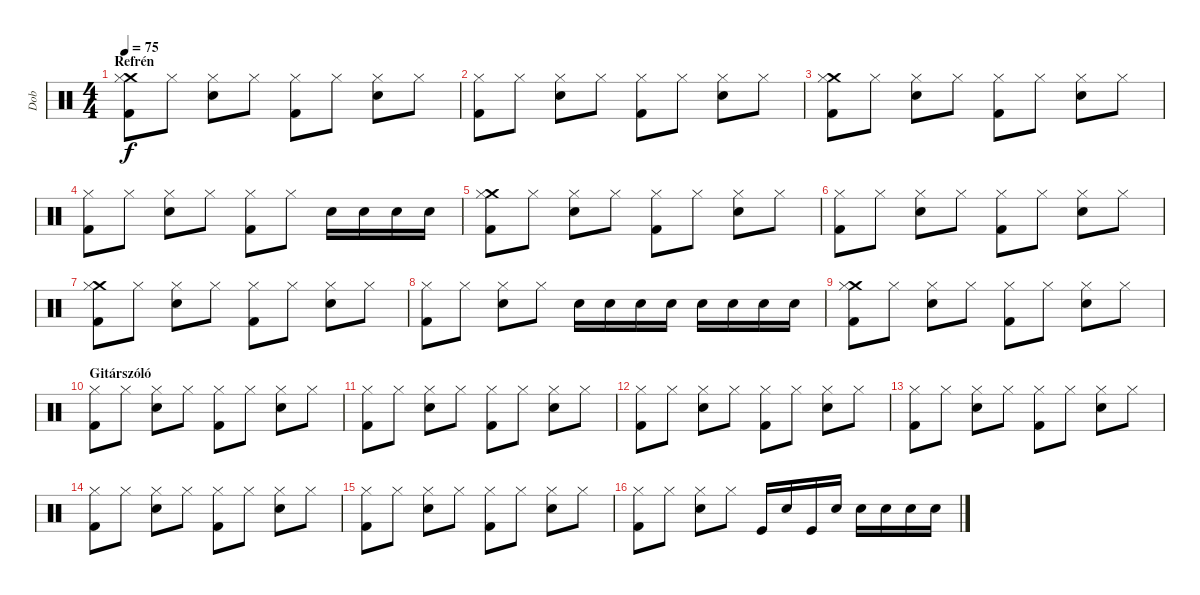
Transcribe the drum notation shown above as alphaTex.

\track ("Dob" "Dob") {instrument percussion}
\staff {score}
\articulation defaults
\ts (4 4)
\section ("" "Refrén")
\tempo 75
\clef neutral
\ks c
("Crash medium (hit)" "Kick (hit) 2" "Hi-Hat (closed)").8{dy f} "Hi-Hat (closed)".8 ("Snare (hit) 2" "Hi-Hat (closed)").8 "Hi-Hat (closed)".8 ("Kick (hit) 2" "Hi-Hat (closed)").8 "Hi-Hat (closed)".8 ("Snare (hit) 2" "Hi-Hat (closed)").8 "Hi-Hat (closed)".8 |
("Kick (hit) 2" "Hi-Hat (closed)").8 "Hi-Hat (closed)".8 ("Snare (hit) 2" "Hi-Hat (closed)").8 "Hi-Hat (closed)".8 ("Kick (hit) 2" "Hi-Hat (closed)").8 "Hi-Hat (closed)".8 ("Snare (hit) 2" "Hi-Hat (closed)").8 "Hi-Hat (closed)".8 |
("Crash medium (hit)" "Kick (hit) 2" "Hi-Hat (closed)").8 "Hi-Hat (closed)".8 ("Snare (hit) 2" "Hi-Hat (closed)").8 "Hi-Hat (closed)".8 ("Kick (hit) 2" "Hi-Hat (closed)").8 "Hi-Hat (closed)".8 ("Snare (hit) 2" "Hi-Hat (closed)").8 "Hi-Hat (closed)".8 |
("Kick (hit) 2" "Hi-Hat (closed)").8 "Hi-Hat (closed)".8 ("Snare (hit) 2" "Hi-Hat (closed)").8 "Hi-Hat (closed)".8 ("Kick (hit) 2" "Hi-Hat (closed)").8 "Hi-Hat (closed)".8 "Snare (hit) 2".16 "Snare (hit) 2".16 "Snare (hit) 2".16 "Snare (hit) 2".16 |
("Crash medium (hit)" "Kick (hit) 2" "Hi-Hat (closed)").8 "Hi-Hat (closed)".8 ("Snare (hit) 2" "Hi-Hat (closed)").8 "Hi-Hat (closed)".8 ("Kick (hit) 2" "Hi-Hat (closed)").8 "Hi-Hat (closed)".8 ("Snare (hit) 2" "Hi-Hat (closed)").8 "Hi-Hat (closed)".8 |
("Kick (hit) 2" "Hi-Hat (closed)").8 "Hi-Hat (closed)".8 ("Snare (hit) 2" "Hi-Hat (closed)").8 "Hi-Hat (closed)".8 ("Kick (hit) 2" "Hi-Hat (closed)").8 "Hi-Hat (closed)".8 ("Snare (hit) 2" "Hi-Hat (closed)").8 "Hi-Hat (closed)".8 |
("Crash medium (hit)" "Kick (hit) 2" "Hi-Hat (closed)").8 "Hi-Hat (closed)".8 ("Snare (hit) 2" "Hi-Hat (closed)").8 "Hi-Hat (closed)".8 ("Kick (hit) 2" "Hi-Hat (closed)").8 "Hi-Hat (closed)".8 ("Snare (hit) 2" "Hi-Hat (closed)").8 "Hi-Hat (closed)".8 |
("Kick (hit) 2" "Hi-Hat (closed)").8 "Hi-Hat (closed)".8 ("Snare (hit) 2" "Hi-Hat (closed)").8 "Hi-Hat (closed)".8 "Snare (hit) 2".16 "Snare (hit) 2".16 "Snare (hit) 2".16 "Snare (hit) 2".16 "Snare (hit) 2".16 "Snare (hit) 2".16 "Snare (hit) 2".16 "Snare (hit) 2".16 |
("Crash medium (hit)" "Kick (hit) 2" "Hi-Hat (closed)").8 "Hi-Hat (closed)".8 ("Snare (hit) 2" "Hi-Hat (closed)").8 "Hi-Hat (closed)".8 ("Kick (hit) 2" "Hi-Hat (closed)").8 "Hi-Hat (closed)".8 ("Snare (hit) 2" "Hi-Hat (closed)").8 "Hi-Hat (closed)".8 |
\section ("" "Gitárszóló")
("Kick (hit) 2" "Hi-Hat (closed)").8 "Hi-Hat (closed)".8 ("Snare (hit) 2" "Hi-Hat (closed)").8 "Hi-Hat (closed)".8 ("Kick (hit) 2" "Hi-Hat (closed)").8 "Hi-Hat (closed)".8 ("Snare (hit) 2" "Hi-Hat (closed)").8 "Hi-Hat (closed)".8 |
("Kick (hit) 2" "Hi-Hat (closed)").8 "Hi-Hat (closed)".8 ("Snare (hit) 2" "Hi-Hat (closed)").8 "Hi-Hat (closed)".8 ("Kick (hit) 2" "Hi-Hat (closed)").8 "Hi-Hat (closed)".8 ("Snare (hit) 2" "Hi-Hat (closed)").8 "Hi-Hat (closed)".8 |
("Kick (hit) 2" "Hi-Hat (closed)").8 "Hi-Hat (closed)".8 ("Snare (hit) 2" "Hi-Hat (closed)").8 "Hi-Hat (closed)".8 ("Kick (hit) 2" "Hi-Hat (closed)").8 "Hi-Hat (closed)".8 ("Snare (hit) 2" "Hi-Hat (closed)").8 "Hi-Hat (closed)".8 |
("Kick (hit) 2" "Hi-Hat (closed)").8 "Hi-Hat (closed)".8 ("Snare (hit) 2" "Hi-Hat (closed)").8 "Hi-Hat (closed)".8 ("Kick (hit) 2" "Hi-Hat (closed)").8 "Hi-Hat (closed)".8 ("Snare (hit) 2" "Hi-Hat (closed)").8 "Hi-Hat (closed)".8 |
("Kick (hit) 2" "Hi-Hat (closed)").8 "Hi-Hat (closed)".8 ("Snare (hit) 2" "Hi-Hat (closed)").8 "Hi-Hat (closed)".8 ("Kick (hit) 2" "Hi-Hat (closed)").8 "Hi-Hat (closed)".8 ("Snare (hit) 2" "Hi-Hat (closed)").8 "Hi-Hat (closed)".8 |
("Kick (hit) 2" "Hi-Hat (closed)").8 "Hi-Hat (closed)".8 ("Snare (hit) 2" "Hi-Hat (closed)").8 "Hi-Hat (closed)".8 ("Kick (hit) 2" "Hi-Hat (closed)").8 "Hi-Hat (closed)".8 ("Snare (hit) 2" "Hi-Hat (closed)").8 "Hi-Hat (closed)".8 |
("Kick (hit) 2" "Hi-Hat (closed)").8 "Hi-Hat (closed)".8 ("Snare (hit) 2" "Hi-Hat (closed)").8 "Hi-Hat (closed)".8 "Kick (hit)".16 "Snare (hit) 2".16 "Kick (hit)".16 "Snare (hit) 2".16 "Snare (hit) 2".16 "Snare (hit) 2".16 "Snare (hit) 2".16 "Snare (hit) 2".16
